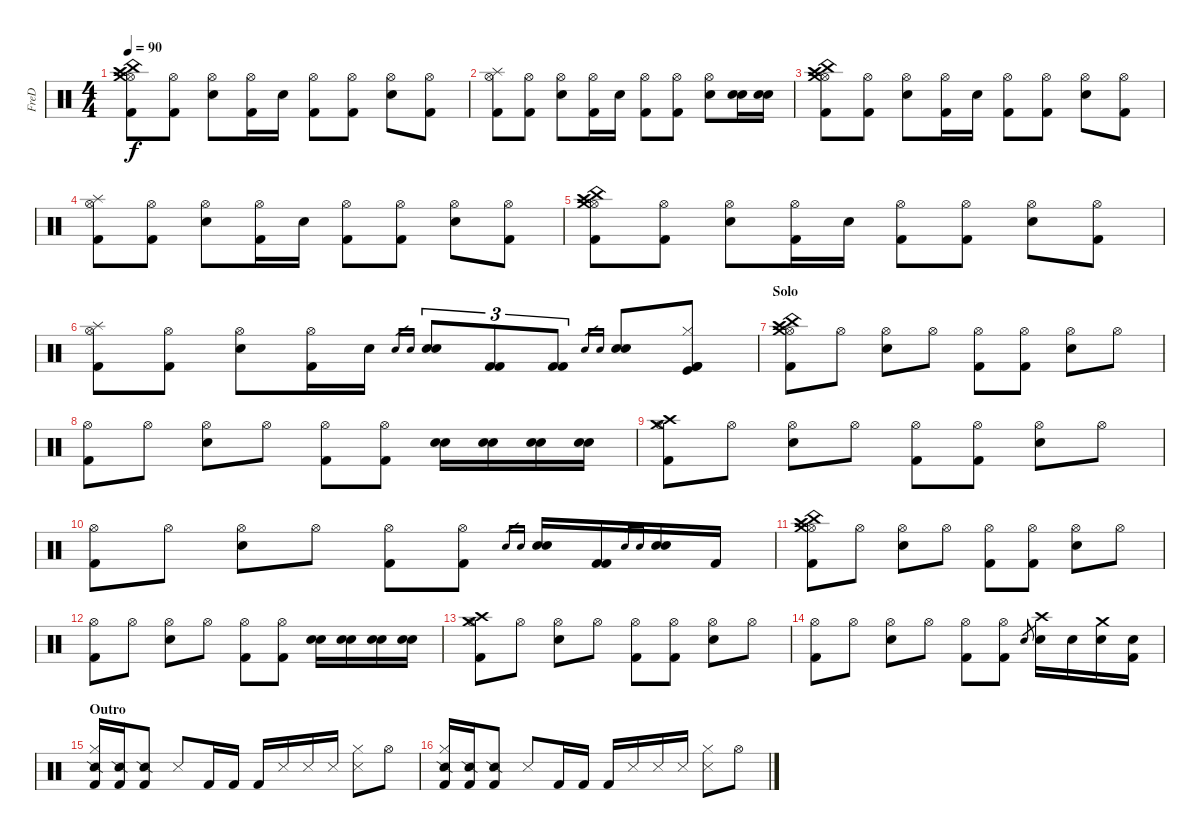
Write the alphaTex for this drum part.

\track ("FreD" "FreD") {instrument percussion}
\staff {score}
\articulation defaults
\ts (4 4)
\tempo 90
\clef neutral
\ks c
("China (hit)" "Hi-Hat (open)" "Crash high (hit)" "Crash medium (hit)" "Kick (hit) 2").8{dy f} ("Hi-Hat (open)" "Kick (hit) 2").8 ("Hi-Hat (open)" "Electric Snare (hit)").8 ("Hi-Hat (open)" "Kick (hit) 2").16 "Electric Snare (hit)".16 ("Hi-Hat (open)" "Kick (hit) 2").8 ("Hi-Hat (open)" "Kick (hit) 2").8 ("Hi-Hat (open)" "Electric Snare (hit)").8 ("Hi-Hat (open)" "Kick (hit) 2").8 |
("Hi-Hat (open)" "Splash (hit)" "Kick (hit) 2").8 ("Hi-Hat (open)" "Kick (hit) 2").8 ("Hi-Hat (open)" "Electric Snare (hit)").8 ("Hi-Hat (open)" "Kick (hit) 2").16 "Electric Snare (hit)".16 ("Hi-Hat (open)" "Kick (hit) 2").8 ("Hi-Hat (open)" "Kick (hit) 2").8 ("Hi-Hat (open)" "Electric Snare (hit)").8 ("Electric Snare (hit)" "Electric Snare (hit)").16 ("Electric Snare (hit)" "Electric Snare (hit)").16 |
("China (hit)" "Hi-Hat (open)" "Crash high (hit)" "Crash medium (hit)" "Kick (hit) 2").8 ("Hi-Hat (open)" "Kick (hit) 2").8 ("Hi-Hat (open)" "Electric Snare (hit)").8 ("Hi-Hat (open)" "Kick (hit) 2").16 "Electric Snare (hit)".16 ("Hi-Hat (open)" "Kick (hit) 2").8 ("Hi-Hat (open)" "Kick (hit) 2").8 ("Hi-Hat (open)" "Electric Snare (hit)").8 ("Hi-Hat (open)" "Kick (hit) 2").8 |
("Hi-Hat (open)" "Splash (hit)" "Kick (hit) 2").8 ("Hi-Hat (open)" "Kick (hit) 2").8 ("Hi-Hat (open)" "Electric Snare (hit)").8 ("Hi-Hat (open)" "Kick (hit) 2").16 "Electric Snare (hit)".16 ("Hi-Hat (open)" "Kick (hit) 2").8 ("Hi-Hat (open)" "Kick (hit) 2").8 ("Hi-Hat (open)" "Electric Snare (hit)").8 ("Hi-Hat (open)" "Kick (hit) 2").8 |
("China (hit)" "Hi-Hat (open)" "Crash high (hit)" "Crash medium (hit)" "Kick (hit) 2").8 ("Hi-Hat (open)" "Kick (hit) 2").8 ("Hi-Hat (open)" "Electric Snare (hit)").8 ("Hi-Hat (open)" "Kick (hit) 2").16 "Electric Snare (hit)".16 ("Hi-Hat (open)" "Kick (hit) 2").8 ("Hi-Hat (open)" "Kick (hit) 2").8 ("Hi-Hat (open)" "Electric Snare (hit)").8 ("Hi-Hat (open)" "Kick (hit) 2").8 |
("Hi-Hat (open)" "Splash (hit)" "Kick (hit) 2").8 ("Hi-Hat (open)" "Kick (hit) 2").8 ("Hi-Hat (open)" "Electric Snare (hit)").8 ("Hi-Hat (open)" "Kick (hit) 2").16 "Electric Snare (hit)".16 "Electric Snare (hit)".16{gr} "Electric Snare (hit)".16{gr} ("Electric Snare (hit)" "Electric Snare (hit)").8{tu (3 2)} ("Kick (hit) 2" "Kick (hit) 2").8{tu (3 2)} ("Kick (hit) 2" "Kick (hit) 2").8{tu (3 2)} "Electric Snare (hit)".16{gr} "Electric Snare (hit)".16{gr} ("Electric Snare (hit)" "Electric Snare (hit)").8 ("Hi-Hat (closed)" "Kick (hit)" "Kick (hit) 2" "Kick (hit) 2").8 |
\section ("" "Solo")
("Hi-Hat (open)" "China (hit)" "Crash medium (hit)" "Crash high (hit)" "Kick (hit) 2").8 "Hi-Hat (open)".8 ("Hi-Hat (open)" "Electric Snare (hit)").8 "Hi-Hat (open)".8 ("Hi-Hat (open)" "Kick (hit) 2").8 ("Hi-Hat (open)" "Kick (hit) 2").8 ("Hi-Hat (open)" "Electric Snare (hit)").8 "Hi-Hat (open)".8 |
("Hi-Hat (open)" "Kick (hit) 2").8 "Hi-Hat (open)".8 ("Hi-Hat (open)" "Electric Snare (hit)").8 "Hi-Hat (open)".8 ("Hi-Hat (open)" "Kick (hit) 2").8 ("Hi-Hat (open)" "Kick (hit) 2").8 ("Electric Snare (hit)" "Electric Snare (hit)").16 ("Electric Snare (hit)" "Electric Snare (hit)").16 ("Electric Snare (hit)" "Electric Snare (hit)").16 ("Electric Snare (hit)" "Electric Snare (hit)").16 |
("Hi-Hat (open)" "Crash medium (hit)" "Crash high (hit)" "Kick (hit) 2").8 "Hi-Hat (open)".8 ("Hi-Hat (open)" "Electric Snare (hit)").8 "Hi-Hat (open)".8 ("Hi-Hat (open)" "Kick (hit) 2").8 ("Hi-Hat (open)" "Kick (hit) 2").8 ("Hi-Hat (open)" "Electric Snare (hit)").8 "Hi-Hat (open)".8 |
("Hi-Hat (open)" "Kick (hit) 2").8 "Hi-Hat (open)".8 ("Hi-Hat (open)" "Electric Snare (hit)").8 "Hi-Hat (open)".8 ("Hi-Hat (open)" "Kick (hit) 2").8 ("Hi-Hat (open)" "Kick (hit) 2").8 "Electric Snare (hit)".16{gr} "Electric Snare (hit)".16{gr} ("Electric Snare (hit)" "Electric Snare (hit)").16 ("Kick (hit) 2" "Kick (hit) 2").16 "Electric Snare (hit)".16{gr} "Electric Snare (hit)".16{gr} ("Electric Snare (hit)" "Electric Snare (hit)").16 "Kick (hit) 2".16 |
("Hi-Hat (open)" "China (hit)" "Crash medium (hit)" "Crash high (hit)" "Kick (hit) 2").8 "Hi-Hat (open)".8 ("Hi-Hat (open)" "Electric Snare (hit)").8 "Hi-Hat (open)".8 ("Hi-Hat (open)" "Kick (hit) 2").8 ("Hi-Hat (open)" "Kick (hit) 2").8 ("Hi-Hat (open)" "Electric Snare (hit)").8 "Hi-Hat (open)".8 |
("Hi-Hat (open)" "Kick (hit) 2").8 "Hi-Hat (open)".8 ("Hi-Hat (open)" "Electric Snare (hit)").8 "Hi-Hat (open)".8 ("Hi-Hat (open)" "Kick (hit) 2").8 ("Hi-Hat (open)" "Kick (hit) 2").8 ("Electric Snare (hit)" "Electric Snare (hit)").16 ("Electric Snare (hit)" "Electric Snare (hit)").16 ("Electric Snare (hit)" "Electric Snare (hit)").16 ("Electric Snare (hit)" "Electric Snare (hit)").16 |
("Hi-Hat (open)" "Crash medium (hit)" "Crash high (hit)" "Kick (hit) 2").8 "Hi-Hat (open)".8 ("Hi-Hat (open)" "Electric Snare (hit)").8 "Hi-Hat (open)".8 ("Hi-Hat (open)" "Kick (hit) 2").8 ("Hi-Hat (open)" "Kick (hit) 2").8 ("Hi-Hat (open)" "Electric Snare (hit)").8 "Hi-Hat (open)".8 |
("Hi-Hat (open)" "Kick (hit) 2").8 "Hi-Hat (open)".8 ("Hi-Hat (open)" "Electric Snare (hit)").8 "Hi-Hat (open)".8 ("Hi-Hat (open)" "Kick (hit) 2").8 ("Hi-Hat (open)" "Kick (hit) 2").8 "Electric Snare (hit)".8{gr} ("Crash high (hit)" "Electric Snare (hit)").16 "Electric Snare (hit)".16 ("Crash medium (hit)" "Electric Snare (hit)").16 ("Kick (hit) 2" "Electric Snare (hit)").16 |
\section ("" "Outro")
("Hi-Hat (closed)" "Snare (side stick) 2" "Kick (hit) 2").16 ("Snare (side stick) 2" "Kick (hit) 2").16 ("Snare (side stick) 2" "Kick (hit) 2").8 "Metronome (hit)".8 "Kick (hit) 2".16 "Kick (hit) 2".16 "Kick (hit) 2".16 "Snare (side stick) 3".16 "Metronome (hit)".16 "Snare (side stick) 3".16 ("Hi-Hat (closed)" "Metronome (hit)").8 "Hi-Hat (open)".8 |
("Hi-Hat (closed)" "Snare (side stick) 2" "Kick (hit) 2").16 ("Snare (side stick) 2" "Kick (hit) 2").16 ("Snare (side stick) 2" "Kick (hit) 2").8 "Metronome (hit)".8 "Kick (hit) 2".16 "Kick (hit) 2".16 "Kick (hit) 2".16 "Snare (side stick) 3".16 "Metronome (hit)".16 "Snare (side stick) 3".16 ("Hi-Hat (closed)" "Metronome (hit)").8 "Hi-Hat (open)".8
